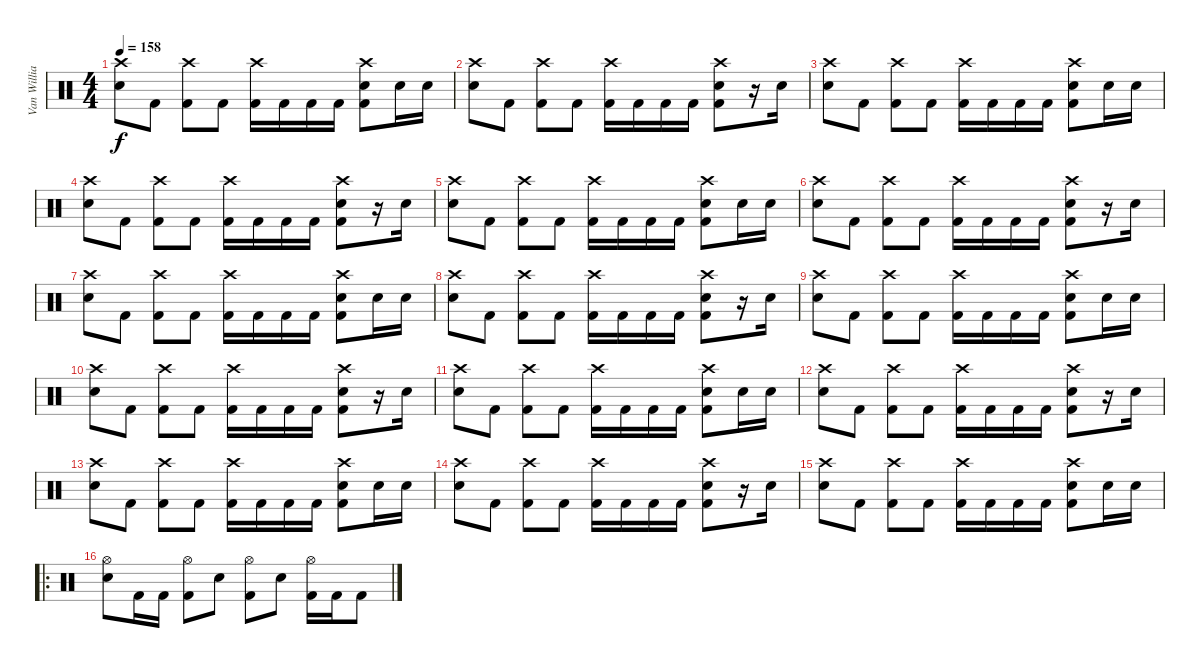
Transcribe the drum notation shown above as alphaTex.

\track ("Van Williams" "Van Willia") {instrument percussion}
\staff {score}
\articulation defaults
\ts (4 4)
\tempo 158
\clef neutral
\ks c
("Crash high (hit)" "Electric Snare (hit)").8{dy f} "Kick (hit) 2".8 ("Crash high (hit)" "Kick (hit) 2").8 "Kick (hit) 2".8 ("Crash high (hit)" "Kick (hit) 2").16 "Kick (hit) 2".16 "Kick (hit) 2".16 "Kick (hit) 2".16 ("Crash high (hit)" "Electric Snare (hit)" "Kick (hit) 2").8 "Electric Snare (hit)".16 "Electric Snare (hit)".16 |
("Crash high (hit)" "Electric Snare (hit)").8 "Kick (hit) 2".8 ("Crash high (hit)" "Kick (hit) 2").8 "Kick (hit) 2".8 ("Crash high (hit)" "Kick (hit) 2").16 "Kick (hit) 2".16 "Kick (hit) 2".16 "Kick (hit) 2".16 ("Crash high (hit)" "Electric Snare (hit)" "Kick (hit) 2").8 r.16 "Electric Snare (hit)".16 |
("Crash high (hit)" "Electric Snare (hit)").8 "Kick (hit) 2".8 ("Crash high (hit)" "Kick (hit) 2").8 "Kick (hit) 2".8 ("Crash high (hit)" "Kick (hit) 2").16 "Kick (hit) 2".16 "Kick (hit) 2".16 "Kick (hit) 2".16 ("Crash high (hit)" "Electric Snare (hit)" "Kick (hit) 2").8 "Electric Snare (hit)".16 "Electric Snare (hit)".16 |
("Crash high (hit)" "Electric Snare (hit)").8 "Kick (hit) 2".8 ("Crash high (hit)" "Kick (hit) 2").8 "Kick (hit) 2".8 ("Crash high (hit)" "Kick (hit) 2").16 "Kick (hit) 2".16 "Kick (hit) 2".16 "Kick (hit) 2".16 ("Crash high (hit)" "Electric Snare (hit)" "Kick (hit) 2").8 r.16 "Electric Snare (hit)".16 |
("Crash high (hit)" "Electric Snare (hit)").8 "Kick (hit) 2".8 ("Crash high (hit)" "Kick (hit) 2").8 "Kick (hit) 2".8 ("Crash high (hit)" "Kick (hit) 2").16 "Kick (hit) 2".16 "Kick (hit) 2".16 "Kick (hit) 2".16 ("Crash high (hit)" "Electric Snare (hit)" "Kick (hit) 2").8 "Electric Snare (hit)".16 "Electric Snare (hit)".16 |
("Crash high (hit)" "Electric Snare (hit)").8 "Kick (hit) 2".8 ("Crash high (hit)" "Kick (hit) 2").8 "Kick (hit) 2".8 ("Crash high (hit)" "Kick (hit) 2").16 "Kick (hit) 2".16 "Kick (hit) 2".16 "Kick (hit) 2".16 ("Crash high (hit)" "Electric Snare (hit)" "Kick (hit) 2").8 r.16 "Electric Snare (hit)".16 |
("Crash high (hit)" "Electric Snare (hit)").8 "Kick (hit) 2".8 ("Crash high (hit)" "Kick (hit) 2").8 "Kick (hit) 2".8 ("Crash high (hit)" "Kick (hit) 2").16 "Kick (hit) 2".16 "Kick (hit) 2".16 "Kick (hit) 2".16 ("Crash high (hit)" "Electric Snare (hit)" "Kick (hit) 2").8 "Electric Snare (hit)".16 "Electric Snare (hit)".16 |
("Crash high (hit)" "Electric Snare (hit)").8 "Kick (hit) 2".8 ("Crash high (hit)" "Kick (hit) 2").8 "Kick (hit) 2".8 ("Crash high (hit)" "Kick (hit) 2").16 "Kick (hit) 2".16 "Kick (hit) 2".16 "Kick (hit) 2".16 ("Crash high (hit)" "Electric Snare (hit)" "Kick (hit) 2").8 r.16 "Electric Snare (hit)".16 |
("Crash high (hit)" "Electric Snare (hit)").8 "Kick (hit) 2".8 ("Crash high (hit)" "Kick (hit) 2").8 "Kick (hit) 2".8 ("Crash high (hit)" "Kick (hit) 2").16 "Kick (hit) 2".16 "Kick (hit) 2".16 "Kick (hit) 2".16 ("Crash high (hit)" "Electric Snare (hit)" "Kick (hit) 2").8 "Electric Snare (hit)".16 "Electric Snare (hit)".16 |
("Crash high (hit)" "Electric Snare (hit)").8 "Kick (hit) 2".8 ("Crash high (hit)" "Kick (hit) 2").8 "Kick (hit) 2".8 ("Crash high (hit)" "Kick (hit) 2").16 "Kick (hit) 2".16 "Kick (hit) 2".16 "Kick (hit) 2".16 ("Crash high (hit)" "Electric Snare (hit)" "Kick (hit) 2").8 r.16 "Electric Snare (hit)".16 |
("Crash high (hit)" "Electric Snare (hit)").8 "Kick (hit) 2".8 ("Crash high (hit)" "Kick (hit) 2").8 "Kick (hit) 2".8 ("Crash high (hit)" "Kick (hit) 2").16 "Kick (hit) 2".16 "Kick (hit) 2".16 "Kick (hit) 2".16 ("Crash high (hit)" "Electric Snare (hit)" "Kick (hit) 2").8 "Electric Snare (hit)".16 "Electric Snare (hit)".16 |
("Crash high (hit)" "Electric Snare (hit)").8 "Kick (hit) 2".8 ("Crash high (hit)" "Kick (hit) 2").8 "Kick (hit) 2".8 ("Crash high (hit)" "Kick (hit) 2").16 "Kick (hit) 2".16 "Kick (hit) 2".16 "Kick (hit) 2".16 ("Crash high (hit)" "Electric Snare (hit)" "Kick (hit) 2").8 r.16 "Electric Snare (hit)".16 |
("Crash high (hit)" "Electric Snare (hit)").8 "Kick (hit) 2".8 ("Crash high (hit)" "Kick (hit) 2").8 "Kick (hit) 2".8 ("Crash high (hit)" "Kick (hit) 2").16 "Kick (hit) 2".16 "Kick (hit) 2".16 "Kick (hit) 2".16 ("Crash high (hit)" "Electric Snare (hit)" "Kick (hit) 2").8 "Electric Snare (hit)".16 "Electric Snare (hit)".16 |
("Crash high (hit)" "Electric Snare (hit)").8 "Kick (hit) 2".8 ("Crash high (hit)" "Kick (hit) 2").8 "Kick (hit) 2".8 ("Crash high (hit)" "Kick (hit) 2").16 "Kick (hit) 2".16 "Kick (hit) 2".16 "Kick (hit) 2".16 ("Crash high (hit)" "Electric Snare (hit)" "Kick (hit) 2").8 r.16 "Electric Snare (hit)".16 |
("Crash high (hit)" "Electric Snare (hit)").8 "Kick (hit) 2".8 ("Crash high (hit)" "Kick (hit) 2").8 "Kick (hit) 2".8 ("Crash high (hit)" "Kick (hit) 2").16 "Kick (hit) 2".16 "Kick (hit) 2".16 "Kick (hit) 2".16 ("Crash high (hit)" "Electric Snare (hit)" "Kick (hit) 2").8 "Electric Snare (hit)".16 "Electric Snare (hit)".16 |
\ro
("Hi-Hat (open)" "Electric Snare (hit)").8 "Kick (hit) 2".16 "Kick (hit) 2".16 ("Hi-Hat (open)" "Kick (hit) 2").8 "Electric Snare (hit)".8 ("Hi-Hat (open)" "Kick (hit) 2").8 "Electric Snare (hit)".8 ("Hi-Hat (open)" "Kick (hit) 2").16 "Kick (hit) 2".16 "Kick (hit) 2".8
